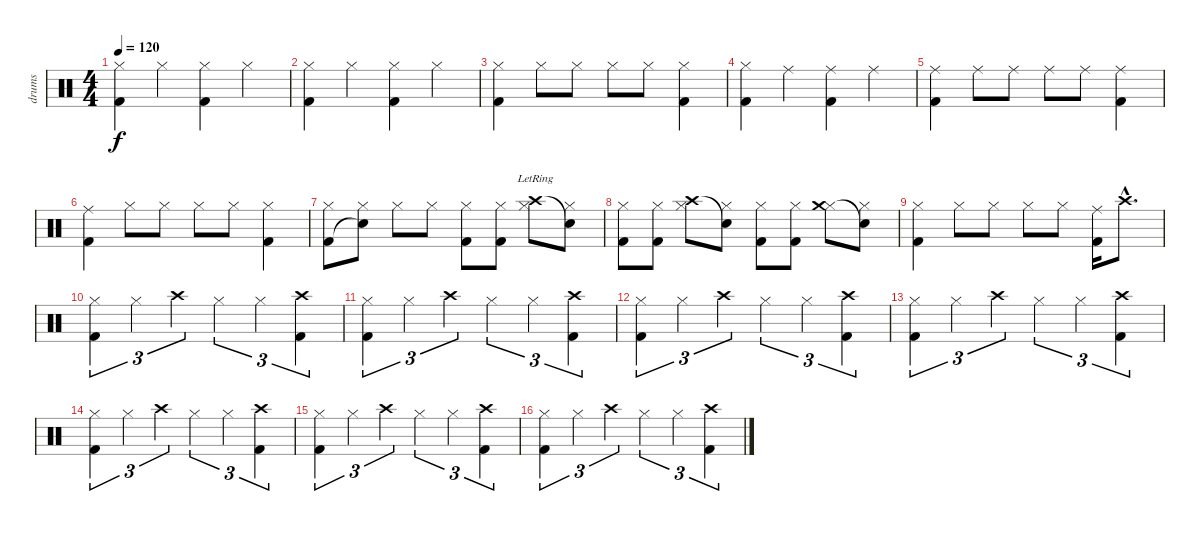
\track ("drums" "drums") {instrument percussion}
\staff {score}
\articulation defaults
\ts (4 4)
\tempo 120
\clef neutral
\ks c
("Hi-Hat (closed)" "Kick (hit) 2").4{dy f} "Hi-Hat (closed)".4 ("Hi-Hat (closed)" "Kick (hit) 2").4 "Hi-Hat (closed)".4 |
("Hi-Hat (closed)" "Kick (hit) 2").4 "Hi-Hat (closed)".4 ("Hi-Hat (closed)" "Kick (hit) 2").4 "Hi-Hat (closed)".4 |
("Hi-Hat (closed)" "Kick (hit) 2").4 "Hi-Hat (closed)".8 "Hi-Hat (closed)".8 "Hi-Hat (closed)".8 "Hi-Hat (closed)".8 ("Hi-Hat (closed)" "Kick (hit) 2").4 |
("Hi-Hat (closed)" "Kick (hit) 2").4 "Ride (middle)".4 ("Ride (middle)" "Kick (hit) 2").4 "Ride (middle)".4 |
("Ride (middle)" "Kick (hit) 2").4 "Ride (middle)".8 "Ride (middle)".8 "Ride (middle)".8 "Ride (middle)".8 ("Ride (middle)" "Kick (hit) 2").4 |
("Ride (middle)" "Kick (hit) 2").4 "Hi-Hat (closed)".8 "Hi-Hat (closed)".8 "Hi-Hat (closed)".8 "Hi-Hat (closed)".8 ("Hi-Hat (closed)" "Kick (hit) 2").4 |
("Hi-Hat (closed)" "Kick (hit) 2").8 ("Hi-Hat (closed)" "Snare (hit)"{t}).8 "Hi-Hat (closed)".8 "Hi-Hat (closed)".8 ("Hi-Hat (closed)" "Kick (hit) 2").8 ("Hi-Hat (closed)" "Kick (hit) 2").8 ("Hi-Hat (closed)" "Crash high (hit)"{lr}).8 ("Hi-Hat (closed)" "Snare (hit)"{t}).8 |
("Hi-Hat (closed)" "Kick (hit) 2").8 ("Hi-Hat (closed)" "Kick (hit) 2").8 ("Hi-Hat (closed)" "Crash high (hit)").8 ("Hi-Hat (closed)" "Snare (hit)"{t}).8 ("Hi-Hat (closed)" "Kick (hit) 2").8 ("Hi-Hat (closed)" "Kick (hit) 2").8 ("Hi-Hat (closed)" "Crash medium (hit)").8 ("Hi-Hat (closed)" "Snare (hit)"{t}).8 |
("Hi-Hat (closed)" "Kick (hit) 2").4 "Hi-Hat (closed)".8 "Hi-Hat (closed)".8 "Hi-Hat (closed)".8 "Hi-Hat (closed)".8 ("Ride (middle)" "Kick (hit) 2").16 "Crash high (hit)"{hac}.8{d} |
("Hi-Hat (closed)" "Kick (hit) 2").4{tu (3 2)} "Hi-Hat (closed)".4{tu (3 2)} "Crash high (hit)".4{tu (3 2)} "Hi-Hat (closed)".4{tu (3 2)} "Hi-Hat (closed)".4{tu (3 2)} ("Crash high (hit)" "Kick (hit) 2").4{tu (3 2)} |
("Hi-Hat (closed)" "Kick (hit) 2").4{tu (3 2)} "Hi-Hat (closed)".4{tu (3 2)} "Crash high (hit)".4{tu (3 2)} "Hi-Hat (closed)".4{tu (3 2)} "Hi-Hat (closed)".4{tu (3 2)} ("Crash high (hit)" "Kick (hit) 2").4{tu (3 2)} |
("Hi-Hat (closed)" "Kick (hit) 2").4{tu (3 2)} "Hi-Hat (closed)".4{tu (3 2)} "Crash high (hit)".4{tu (3 2)} "Hi-Hat (closed)".4{tu (3 2)} "Hi-Hat (closed)".4{tu (3 2)} ("Crash high (hit)" "Kick (hit) 2").4{tu (3 2)} |
("Hi-Hat (closed)" "Kick (hit) 2").4{tu (3 2)} "Hi-Hat (closed)".4{tu (3 2)} "Crash high (hit)".4{tu (3 2)} "Hi-Hat (closed)".4{tu (3 2)} "Hi-Hat (closed)".4{tu (3 2)} ("Crash high (hit)" "Kick (hit) 2").4{tu (3 2)} |
("Hi-Hat (closed)" "Kick (hit) 2").4{tu (3 2)} "Hi-Hat (closed)".4{tu (3 2)} "Crash high (hit)".4{tu (3 2)} "Hi-Hat (closed)".4{tu (3 2)} "Hi-Hat (closed)".4{tu (3 2)} ("Crash high (hit)" "Kick (hit) 2").4{tu (3 2)} |
("Hi-Hat (closed)" "Kick (hit) 2").4{tu (3 2)} "Hi-Hat (closed)".4{tu (3 2)} "Crash high (hit)".4{tu (3 2)} "Hi-Hat (closed)".4{tu (3 2)} "Hi-Hat (closed)".4{tu (3 2)} ("Crash high (hit)" "Kick (hit) 2").4{tu (3 2)} |
("Hi-Hat (closed)" "Kick (hit) 2").4{tu (3 2)} "Hi-Hat (closed)".4{tu (3 2)} "Crash high (hit)".4{tu (3 2)} "Hi-Hat (closed)".4{tu (3 2)} "Hi-Hat (closed)".4{tu (3 2)} ("Crash high (hit)" "Kick (hit) 2").4{tu (3 2)}
